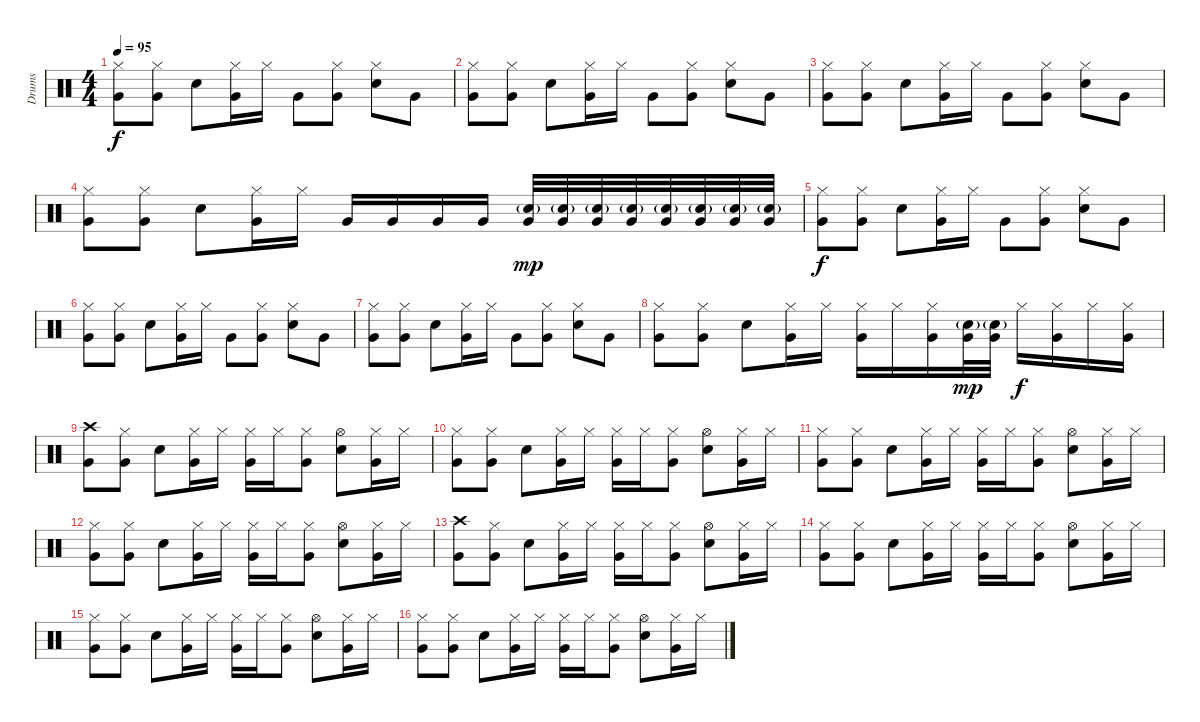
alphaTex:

\track ("Drums" "Drums") {instrument percussion}
\staff {score}
\articulation defaults
\ts (4 4)
\tempo 95
\clef neutral
\ks c
("Hi-Hat (closed)" "Very Low Tom (hit)").8{dy f} ("Hi-Hat (closed)" "Very Low Tom (hit)").8 "Electric Snare (hit)".8 ("Hi-Hat (closed)" "Very Low Tom (hit)").16 "Hi-Hat (closed)".16 "Very Low Tom (hit)".8 ("Hi-Hat (closed)" "Very Low Tom (hit)").8 ("Hi-Hat (closed)" "Electric Snare (hit)").8 "Very Low Tom (hit)".8 |
("Hi-Hat (closed)" "Very Low Tom (hit)").8 ("Hi-Hat (closed)" "Very Low Tom (hit)").8 "Electric Snare (hit)".8 ("Hi-Hat (closed)" "Very Low Tom (hit)").16 "Hi-Hat (closed)".16 "Very Low Tom (hit)".8 ("Hi-Hat (closed)" "Very Low Tom (hit)").8 ("Hi-Hat (closed)" "Electric Snare (hit)").8 "Very Low Tom (hit)".8 |
("Hi-Hat (closed)" "Very Low Tom (hit)").8 ("Hi-Hat (closed)" "Very Low Tom (hit)").8 "Electric Snare (hit)".8 ("Hi-Hat (closed)" "Very Low Tom (hit)").16 "Hi-Hat (closed)".16 "Very Low Tom (hit)".8 ("Hi-Hat (closed)" "Very Low Tom (hit)").8 ("Hi-Hat (closed)" "Electric Snare (hit)").8 "Very Low Tom (hit)".8 |
("Hi-Hat (closed)" "Very Low Tom (hit)").8 ("Hi-Hat (closed)" "Very Low Tom (hit)").8 "Electric Snare (hit)".8 ("Hi-Hat (closed)" "Very Low Tom (hit)").16 "Hi-Hat (closed)".16 "Very Low Tom (hit)".16 "Very Low Tom (hit)".16 "Very Low Tom (hit)".16 "Very Low Tom (hit)".16 ("Very Low Tom (hit)" "Electric Snare (hit)"{g}).32{dy mp} ("Very Low Tom (hit)" "Electric Snare (hit)"{g}).32 ("Very Low Tom (hit)" "Electric Snare (hit)"{g}).32 ("Very Low Tom (hit)" "Electric Snare (hit)"{g}).32 ("Very Low Tom (hit)" "Electric Snare (hit)"{g}).32 ("Very Low Tom (hit)" "Electric Snare (hit)"{g}).32 ("Very Low Tom (hit)" "Electric Snare (hit)"{g}).32 ("Very Low Tom (hit)" "Electric Snare (hit)"{g}).32 |
("Hi-Hat (closed)" "Very Low Tom (hit)").8{dy f} ("Hi-Hat (closed)" "Very Low Tom (hit)").8 "Electric Snare (hit)".8 ("Hi-Hat (closed)" "Very Low Tom (hit)").16 "Hi-Hat (closed)".16 "Very Low Tom (hit)".8 ("Hi-Hat (closed)" "Very Low Tom (hit)").8 ("Hi-Hat (closed)" "Electric Snare (hit)").8 "Very Low Tom (hit)".8 |
("Hi-Hat (closed)" "Very Low Tom (hit)").8 ("Hi-Hat (closed)" "Very Low Tom (hit)").8 "Electric Snare (hit)".8 ("Hi-Hat (closed)" "Very Low Tom (hit)").16 "Hi-Hat (closed)".16 "Very Low Tom (hit)".8 ("Hi-Hat (closed)" "Very Low Tom (hit)").8 ("Hi-Hat (closed)" "Electric Snare (hit)").8 "Very Low Tom (hit)".8 |
("Hi-Hat (closed)" "Very Low Tom (hit)").8 ("Hi-Hat (closed)" "Very Low Tom (hit)").8 "Electric Snare (hit)".8 ("Hi-Hat (closed)" "Very Low Tom (hit)").16 "Hi-Hat (closed)".16 "Very Low Tom (hit)".8 ("Hi-Hat (closed)" "Very Low Tom (hit)").8 ("Hi-Hat (closed)" "Electric Snare (hit)").8 "Very Low Tom (hit)".8 |
("Hi-Hat (closed)" "Very Low Tom (hit)").8 ("Hi-Hat (closed)" "Very Low Tom (hit)").8 "Electric Snare (hit)".8 ("Hi-Hat (closed)" "Very Low Tom (hit)").16 "Hi-Hat (closed)".16 ("Hi-Hat (closed)" "Very Low Tom (hit)").16 "Hi-Hat (closed)".16 ("Hi-Hat (closed)" "Very Low Tom (hit)").16 ("Very Low Tom (hit)" "Electric Snare (hit)"{g}).32{dy mp} ("Very Low Tom (hit)" "Electric Snare (hit)"{g}).32 "Hi-Hat (closed)".16{dy f} ("Hi-Hat (closed)" "Very Low Tom (hit)").16 "Hi-Hat (closed)".16 ("Hi-Hat (closed)" "Very Low Tom (hit)").16 |
("Crash high (hit)" "Very Low Tom (hit)").8 ("Hi-Hat (closed)" "Very Low Tom (hit)").8 "Electric Snare (hit)".8 ("Hi-Hat (closed)" "Very Low Tom (hit)").16 "Hi-Hat (closed)".16 ("Hi-Hat (closed)" "Very Low Tom (hit)").16 "Hi-Hat (closed)".16 ("Hi-Hat (closed)" "Very Low Tom (hit)").8 ("Hi-Hat (open)" "Electric Snare (hit)").8 ("Hi-Hat (closed)" "Very Low Tom (hit)").16 "Hi-Hat (closed)".16 |
("Hi-Hat (closed)" "Very Low Tom (hit)").8 ("Hi-Hat (closed)" "Very Low Tom (hit)").8 "Electric Snare (hit)".8 ("Hi-Hat (closed)" "Very Low Tom (hit)").16 "Hi-Hat (closed)".16 ("Hi-Hat (closed)" "Very Low Tom (hit)").16 "Hi-Hat (closed)".16 ("Hi-Hat (closed)" "Very Low Tom (hit)").8 ("Hi-Hat (open)" "Electric Snare (hit)").8 ("Hi-Hat (closed)" "Very Low Tom (hit)").16 "Hi-Hat (closed)".16 |
("Hi-Hat (closed)" "Very Low Tom (hit)").8 ("Hi-Hat (closed)" "Very Low Tom (hit)").8 "Electric Snare (hit)".8 ("Hi-Hat (closed)" "Very Low Tom (hit)").16 "Hi-Hat (closed)".16 ("Hi-Hat (closed)" "Very Low Tom (hit)").16 "Hi-Hat (closed)".16 ("Hi-Hat (closed)" "Very Low Tom (hit)").8 ("Hi-Hat (open)" "Electric Snare (hit)").8 ("Hi-Hat (closed)" "Very Low Tom (hit)").16 "Hi-Hat (closed)".16 |
("Hi-Hat (closed)" "Very Low Tom (hit)").8 ("Hi-Hat (closed)" "Very Low Tom (hit)").8 "Electric Snare (hit)".8 ("Hi-Hat (closed)" "Very Low Tom (hit)").16 "Hi-Hat (closed)".16 ("Hi-Hat (closed)" "Very Low Tom (hit)").16 "Hi-Hat (closed)".16 ("Hi-Hat (closed)" "Very Low Tom (hit)").8 ("Hi-Hat (open)" "Electric Snare (hit)").8 ("Hi-Hat (closed)" "Very Low Tom (hit)").16 "Hi-Hat (closed)".16 |
("Crash high (hit)" "Very Low Tom (hit)").8 ("Hi-Hat (closed)" "Very Low Tom (hit)").8 "Electric Snare (hit)".8 ("Hi-Hat (closed)" "Very Low Tom (hit)").16 "Hi-Hat (closed)".16 ("Hi-Hat (closed)" "Very Low Tom (hit)").16 "Hi-Hat (closed)".16 ("Hi-Hat (closed)" "Very Low Tom (hit)").8 ("Hi-Hat (open)" "Electric Snare (hit)").8 ("Hi-Hat (closed)" "Very Low Tom (hit)").16 "Hi-Hat (closed)".16 |
("Hi-Hat (closed)" "Very Low Tom (hit)").8 ("Hi-Hat (closed)" "Very Low Tom (hit)").8 "Electric Snare (hit)".8 ("Hi-Hat (closed)" "Very Low Tom (hit)").16 "Hi-Hat (closed)".16 ("Hi-Hat (closed)" "Very Low Tom (hit)").16 "Hi-Hat (closed)".16 ("Hi-Hat (closed)" "Very Low Tom (hit)").8 ("Hi-Hat (open)" "Electric Snare (hit)").8 ("Hi-Hat (closed)" "Very Low Tom (hit)").16 "Hi-Hat (closed)".16 |
("Hi-Hat (closed)" "Very Low Tom (hit)").8 ("Hi-Hat (closed)" "Very Low Tom (hit)").8 "Electric Snare (hit)".8 ("Hi-Hat (closed)" "Very Low Tom (hit)").16 "Hi-Hat (closed)".16 ("Hi-Hat (closed)" "Very Low Tom (hit)").16 "Hi-Hat (closed)".16 ("Hi-Hat (closed)" "Very Low Tom (hit)").8 ("Hi-Hat (open)" "Electric Snare (hit)").8 ("Hi-Hat (closed)" "Very Low Tom (hit)").16 "Hi-Hat (closed)".16 |
("Hi-Hat (closed)" "Very Low Tom (hit)").8 ("Hi-Hat (closed)" "Very Low Tom (hit)").8 "Electric Snare (hit)".8 ("Hi-Hat (closed)" "Very Low Tom (hit)").16 "Hi-Hat (closed)".16 ("Hi-Hat (closed)" "Very Low Tom (hit)").16 "Hi-Hat (closed)".16 ("Hi-Hat (closed)" "Very Low Tom (hit)").8 ("Hi-Hat (open)" "Electric Snare (hit)").8 ("Hi-Hat (closed)" "Very Low Tom (hit)").16 "Hi-Hat (closed)".16
